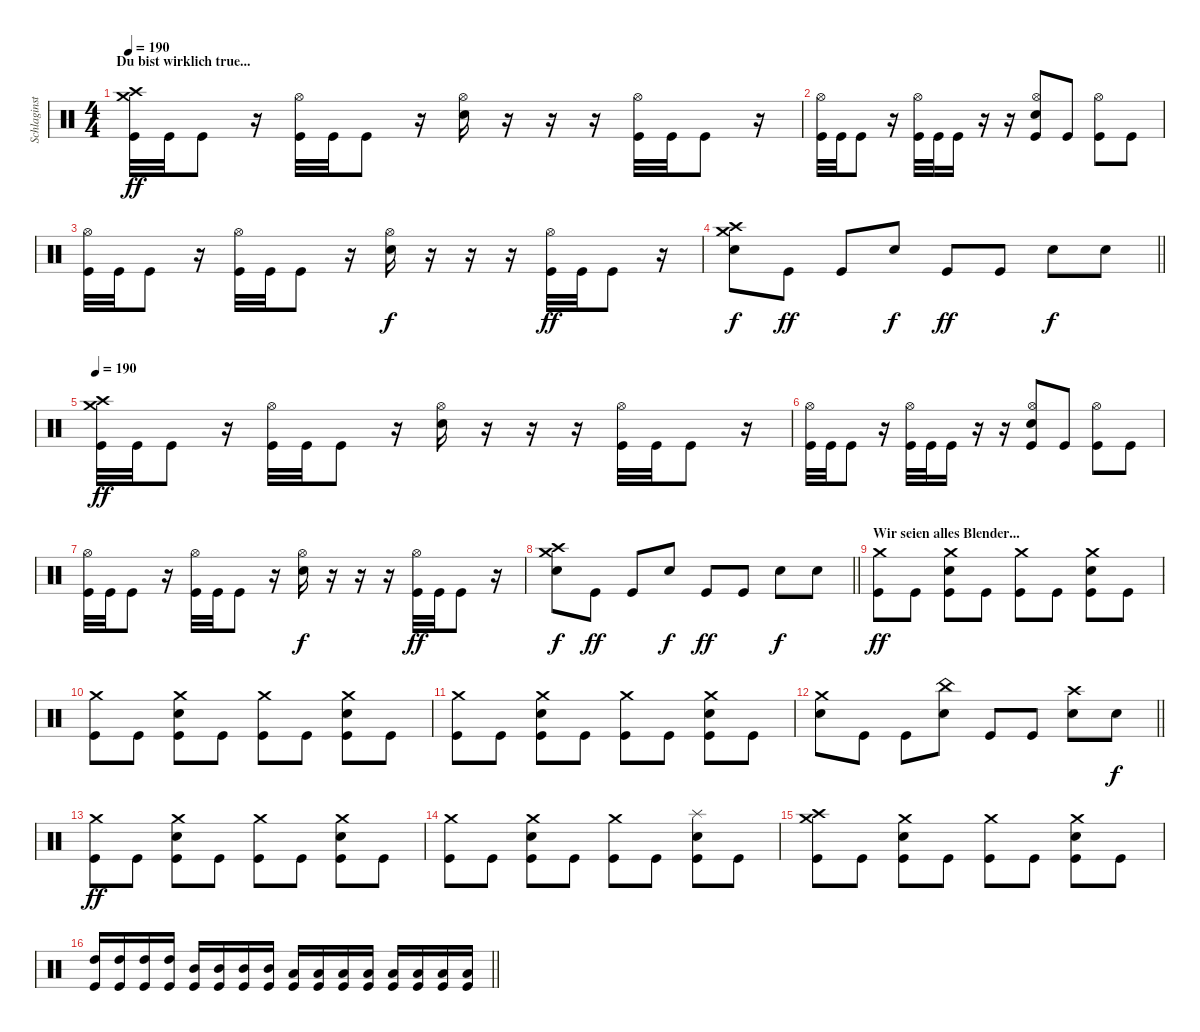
\track ("Schlaginstrumente - Auswahl" "Schlaginst") {instrument percussion}
\staff {score}
\articulation defaults
\ts (4 4)
\section ("" "Du bist wirklich true...")
\tempo 190
\clef neutral
\ks c
("Crash high (hit)" "Crash medium (hit)" "Kick (hit)").32{dy ff} "Kick (hit)".32 "Kick (hit)".8 r.16 ("Hi-Hat (open)" "Kick (hit)").32 "Kick (hit)".32 "Kick (hit)".8 r.16 ("Hi-Hat (open)" "Electric Snare (hit)").16 r.16 r.16 r.16 ("Hi-Hat (open)" "Kick (hit)").32 "Kick (hit)".32 "Kick (hit)".8 r.16 |
("Hi-Hat (open)" "Kick (hit)").32 "Kick (hit)".32 "Kick (hit)".8 r.16 ("Hi-Hat (open)" "Kick (hit)").32 "Kick (hit)".32 "Kick (hit)".16 r.16 r.16 ("Hi-Hat (open)" "Electric Snare (hit)" "Kick (hit)").8 "Kick (hit)".8 ("Hi-Hat (open)" "Kick (hit)").8 "Kick (hit)".8 |
("Hi-Hat (open)" "Kick (hit)").32 "Kick (hit)".32 "Kick (hit)".8 r.16 ("Hi-Hat (open)" "Kick (hit)").32 "Kick (hit)".32 "Kick (hit)".8 r.16 ("Hi-Hat (open)" "Electric Snare (hit)").16{dy f} r.16 r.16 r.16 ("Hi-Hat (open)" "Kick (hit)").32{dy ff} "Kick (hit)".32 "Kick (hit)".8 r.16 |
\barLineRight lightlight
("Crash medium (hit)" "Electric Snare (hit)" "Crash high (hit)").8{dy f} "Kick (hit)".8{dy ff} "Kick (hit)".8 "Electric Snare (hit)".8{dy f} "Kick (hit)".8{dy ff} "Kick (hit)".8 "Electric Snare (hit)".8{dy f} "Electric Snare (hit)".8 |
\tempo 190
("Crash high (hit)" "Crash medium (hit)" "Kick (hit)").32{dy ff} "Kick (hit)".32 "Kick (hit)".8 r.16 ("Hi-Hat (open)" "Kick (hit)").32 "Kick (hit)".32 "Kick (hit)".8 r.16 ("Hi-Hat (open)" "Electric Snare (hit)").16 r.16 r.16 r.16 ("Hi-Hat (open)" "Kick (hit)").32 "Kick (hit)".32 "Kick (hit)".8 r.16 |
("Hi-Hat (open)" "Kick (hit)").32 "Kick (hit)".32 "Kick (hit)".8 r.16 ("Hi-Hat (open)" "Kick (hit)").32 "Kick (hit)".32 "Kick (hit)".16 r.16 r.16 ("Hi-Hat (open)" "Electric Snare (hit)" "Kick (hit)").8 "Kick (hit)".8 ("Hi-Hat (open)" "Kick (hit)").8 "Kick (hit)".8 |
("Hi-Hat (open)" "Kick (hit)").32 "Kick (hit)".32 "Kick (hit)".8 r.16 ("Hi-Hat (open)" "Kick (hit)").32 "Kick (hit)".32 "Kick (hit)".8 r.16 ("Hi-Hat (open)" "Electric Snare (hit)").16{dy f} r.16 r.16 r.16 ("Hi-Hat (open)" "Kick (hit)").32{dy ff} "Kick (hit)".32 "Kick (hit)".8 r.16 |
\barLineRight lightlight
("Crash medium (hit)" "Electric Snare (hit)" "Crash high (hit)").8{dy f} "Kick (hit)".8{dy ff} "Kick (hit)".8 "Electric Snare (hit)".8{dy f} "Kick (hit)".8{dy ff} "Kick (hit)".8 "Electric Snare (hit)".8{dy f} "Electric Snare (hit)".8 |
\section ("" "Wir seien alles Blender...")
("Crash medium (hit)" "Kick (hit)").8{dy ff} "Kick (hit)".8 ("Crash medium (hit)" "Electric Snare (hit)" "Kick (hit)").8 "Kick (hit)".8 ("Crash medium (hit)" "Kick (hit)").8 "Kick (hit)".8 ("Crash medium (hit)" "Electric Snare (hit)" "Kick (hit)").8 "Kick (hit)".8 |
("Crash medium (hit)" "Kick (hit)").8 "Kick (hit)".8 ("Crash medium (hit)" "Electric Snare (hit)" "Kick (hit)").8 "Kick (hit)".8 ("Crash medium (hit)" "Kick (hit)").8 "Kick (hit)".8 ("Crash medium (hit)" "Electric Snare (hit)" "Kick (hit)").8 "Kick (hit)".8 |
("Crash medium (hit)" "Kick (hit)").8 "Kick (hit)".8 ("Crash medium (hit)" "Electric Snare (hit)" "Kick (hit)").8 "Kick (hit)".8 ("Crash medium (hit)" "Kick (hit)").8 "Kick (hit)".8 ("Crash medium (hit)" "Electric Snare (hit)" "Kick (hit)").8 "Kick (hit)".8 |
\barLineRight lightlight
("Crash medium (hit)" "Electric Snare (hit)").8 "Kick (hit)".8 "Kick (hit)".8 ("China (hit)" "Electric Snare (hit)").8 "Kick (hit)".8 "Kick (hit)".8 ("Crash high (hit)" "Electric Snare (hit)").8 "Electric Snare (hit)".8{dy f} |
("Crash medium (hit)" "Kick (hit)").8{dy ff} "Kick (hit)".8 ("Crash medium (hit)" "Electric Snare (hit)" "Kick (hit)").8 "Kick (hit)".8 ("Crash medium (hit)" "Kick (hit)").8 "Kick (hit)".8 ("Crash medium (hit)" "Electric Snare (hit)" "Kick (hit)").8 "Kick (hit)".8 |
("Crash medium (hit)" "Kick (hit)").8 "Kick (hit)".8 ("Crash medium (hit)" "Electric Snare (hit)" "Kick (hit)").8 "Kick (hit)".8 ("Crash medium (hit)" "Kick (hit)").8 "Kick (hit)".8 ("Splash (hit)" "Electric Snare (hit)" "Kick (hit)").8 "Kick (hit)".8 |
("Crash medium (hit)" "Crash high (hit)" "Kick (hit)").8 "Kick (hit)".8 ("Crash medium (hit)" "Electric Snare (hit)" "Kick (hit)").8 "Kick (hit)".8 ("Crash medium (hit)" "Kick (hit)").8 "Kick (hit)".8 ("Crash medium (hit)" "Electric Snare (hit)" "Kick (hit)").8 "Kick (hit)".8 |
\barLineRight lightlight
("High Tom (hit)" "Kick (hit)").16 ("High Tom (hit)" "Kick (hit)").16 ("High Tom (hit)" "Kick (hit)").16 ("High Tom (hit)" "Kick (hit)").16 ("Mid Tom (hit)" "Kick (hit)").16 ("Mid Tom (hit)" "Kick (hit)").16 ("Mid Tom (hit)" "Kick (hit)").16 ("Mid Tom (hit)" "Kick (hit)").16 ("Low Tom (hit)" "Kick (hit)").16 ("Low Tom (hit)" "Kick (hit)").16 ("Low Tom (hit)" "Kick (hit)").16 ("Low Tom (hit)" "Kick (hit)").16 ("Low Floor Tom (hit)" "Kick (hit)").16 ("Low Floor Tom (hit)" "Kick (hit)").16 ("Low Floor Tom (hit)" "Kick (hit)").16 ("Low Floor Tom (hit)" "Kick (hit)").16
